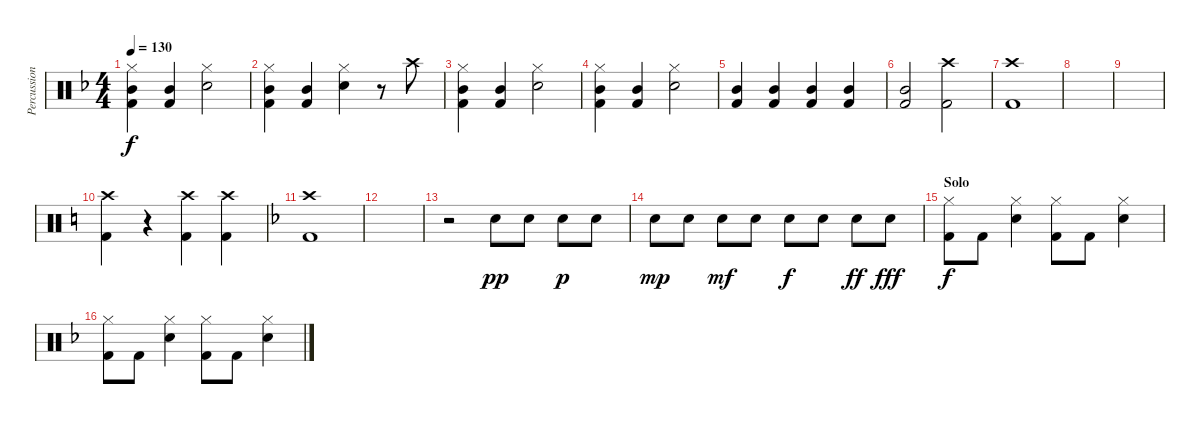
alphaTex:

\track ("Percussion" "Percussion") {instrument percussion}
\staff {score}
\articulation defaults
\ts (4 4)
\tempo 130
\clef neutral
\ks dminor
("Hi-Hat (closed)" "Mid Tom (hit)" "Kick (hit) 2").4{dy f} ("Mid Tom (hit)" "Kick (hit) 2").4 ("Hi-Hat (closed)" "Snare (hit) 2").2 |
("Hi-Hat (closed)" "Mid Tom (hit)" "Kick (hit) 2").4 ("Mid Tom (hit)" "Kick (hit) 2").4 ("Hi-Hat (closed)" "Snare (hit) 2").4 r.8 "Crash high (hit)".8 |
("Hi-Hat (closed)" "Mid Tom (hit)" "Kick (hit) 2").4 ("Mid Tom (hit)" "Kick (hit) 2").4 ("Hi-Hat (closed)" "Snare (hit) 2").2 |
("Hi-Hat (closed)" "Mid Tom (hit)" "Kick (hit) 2").4 ("Mid Tom (hit)" "Kick (hit) 2").4 ("Hi-Hat (closed)" "Snare (hit) 2").2 |
("Mid Tom (hit)" "Kick (hit) 2").4 ("Mid Tom (hit)" "Kick (hit) 2").4 ("Mid Tom (hit)" "Kick (hit) 2").4 ("Mid Tom (hit)" "Kick (hit) 2").4 |
("Mid Tom (hit)" "Kick (hit) 2").2 ("Crash high (hit)" "Kick (hit) 2").2 |
("Crash high (hit)" "Kick (hit) 2").1 |
|
|
\ks aminor
("Crash high (hit)" "Kick (hit) 2").4 r.4 ("Crash high (hit)" "Kick (hit) 2").4 ("Crash high (hit)" "Kick (hit) 2").4 |
\ks dminor
("Crash high (hit)" "Kick (hit) 2").1 |
|
r.2 "Snare (hit) 2".8{dy pp} "Snare (hit) 2".8 "Snare (hit) 2".8{dy p} "Snare (hit) 2".8 |
"Snare (hit) 2".8{dy mp} "Snare (hit) 2".8 "Snare (hit) 2".8{dy mf} "Snare (hit) 2".8 "Snare (hit) 2".8{dy f} "Snare (hit) 2".8 "Snare (hit) 2".8{dy ff} "Snare (hit) 2".8{dy fff} |
\section ("" "Solo")
("Hi-Hat (closed)" "Kick (hit) 2").8{dy f} "Kick (hit) 2".8 ("Hi-Hat (closed)" "Snare (hit) 2").4 ("Hi-Hat (closed)" "Kick (hit) 2").8 "Kick (hit) 2".8 ("Hi-Hat (closed)" "Snare (hit) 2").4 |
("Hi-Hat (closed)" "Kick (hit) 2").8 "Kick (hit) 2".8 ("Hi-Hat (closed)" "Snare (hit) 2").4 ("Hi-Hat (closed)" "Kick (hit) 2").8 "Kick (hit) 2".8 ("Hi-Hat (closed)" "Snare (hit) 2").4
